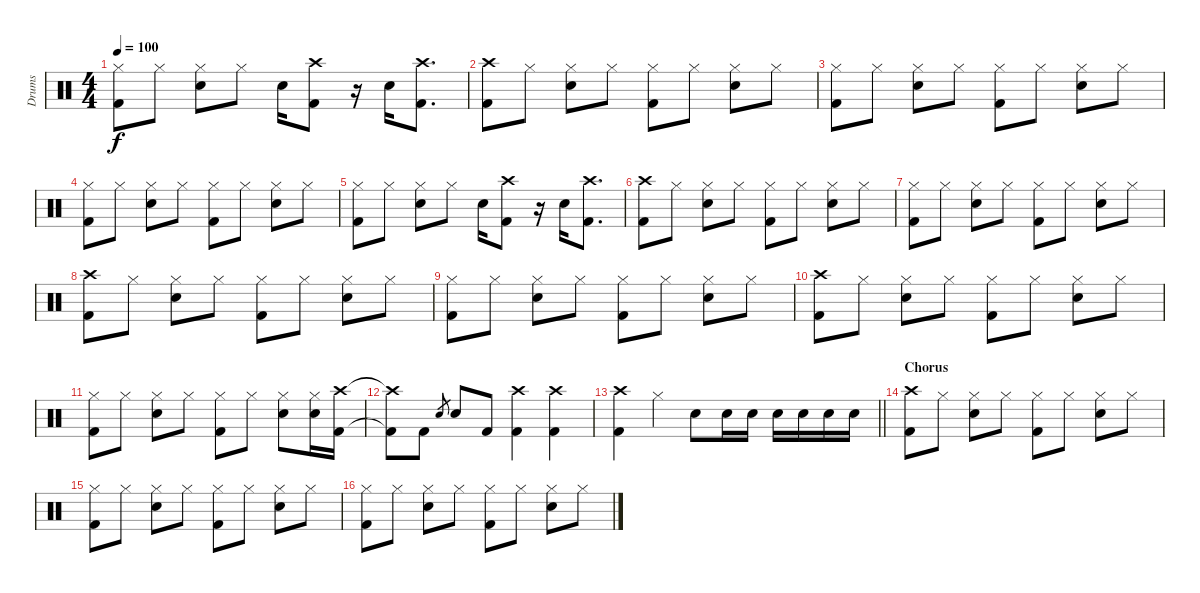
\track ("Drums" "Drums") {instrument percussion}
\staff {score}
\articulation defaults
\ts (4 4)
\tempo 100
\clef neutral
\ks c
("Hi-Hat (closed)" "Kick (hit) 2").8{dy f} "Hi-Hat (closed)".8 ("Hi-Hat (closed)" "Snare (hit) 2").8 "Hi-Hat (closed)".8 "Snare (hit) 2".16 ("Crash high (hit)" "Kick (hit) 2").8 r.16 "Snare (hit) 2".16 ("Crash high (hit)" "Kick (hit) 2").8{d} |
("Crash high (hit)" "Kick (hit) 2").8 "Hi-Hat (closed)".8 ("Hi-Hat (closed)" "Snare (hit) 2").8 "Hi-Hat (closed)".8 ("Hi-Hat (closed)" "Kick (hit) 2").8 "Hi-Hat (closed)".8 ("Hi-Hat (closed)" "Snare (hit) 2").8 "Hi-Hat (closed)".8 |
("Hi-Hat (closed)" "Kick (hit) 2").8 "Hi-Hat (closed)".8 ("Hi-Hat (closed)" "Snare (hit) 2").8 "Hi-Hat (closed)".8 ("Hi-Hat (closed)" "Kick (hit) 2").8 "Hi-Hat (closed)".8 ("Hi-Hat (closed)" "Snare (hit) 2").8 "Hi-Hat (closed)".8 |
("Hi-Hat (closed)" "Kick (hit) 2").8 "Hi-Hat (closed)".8 ("Hi-Hat (closed)" "Snare (hit) 2").8 "Hi-Hat (closed)".8 ("Hi-Hat (closed)" "Kick (hit) 2").8 "Hi-Hat (closed)".8 ("Hi-Hat (closed)" "Snare (hit) 2").8 "Hi-Hat (closed)".8 |
("Hi-Hat (closed)" "Kick (hit) 2").8 "Hi-Hat (closed)".8 ("Hi-Hat (closed)" "Snare (hit) 2").8 "Hi-Hat (closed)".8 "Snare (hit) 2".16 ("Crash high (hit)" "Kick (hit) 2").8 r.16 "Snare (hit) 2".16 ("Crash high (hit)" "Kick (hit) 2").8{d} |
("Crash high (hit)" "Kick (hit) 2").8 "Hi-Hat (closed)".8 ("Hi-Hat (closed)" "Snare (hit) 2").8 "Hi-Hat (closed)".8 ("Hi-Hat (closed)" "Kick (hit) 2").8 "Hi-Hat (closed)".8 ("Hi-Hat (closed)" "Snare (hit) 2").8 "Hi-Hat (closed)".8 |
("Hi-Hat (closed)" "Kick (hit) 2").8 "Hi-Hat (closed)".8 ("Hi-Hat (closed)" "Snare (hit) 2").8 "Hi-Hat (closed)".8 ("Hi-Hat (closed)" "Kick (hit) 2").8 "Hi-Hat (closed)".8 ("Hi-Hat (closed)" "Snare (hit) 2").8 "Hi-Hat (closed)".8 |
("Crash high (hit)" "Kick (hit) 2").8 "Hi-Hat (closed)".8 ("Hi-Hat (closed)" "Snare (hit) 2").8 "Hi-Hat (closed)".8 ("Hi-Hat (closed)" "Kick (hit) 2").8 "Hi-Hat (closed)".8 ("Hi-Hat (closed)" "Snare (hit) 2").8 "Hi-Hat (closed)".8 |
("Hi-Hat (closed)" "Kick (hit) 2").8 "Hi-Hat (closed)".8 ("Hi-Hat (closed)" "Snare (hit) 2").8 "Hi-Hat (closed)".8 ("Hi-Hat (closed)" "Kick (hit) 2").8 "Hi-Hat (closed)".8 ("Hi-Hat (closed)" "Snare (hit) 2").8 "Hi-Hat (closed)".8 |
("Crash high (hit)" "Kick (hit) 2").8 "Hi-Hat (closed)".8 ("Hi-Hat (closed)" "Snare (hit) 2").8 "Hi-Hat (closed)".8 ("Hi-Hat (closed)" "Kick (hit) 2").8 "Hi-Hat (closed)".8 ("Hi-Hat (closed)" "Snare (hit) 2").8 "Hi-Hat (closed)".8 |
("Hi-Hat (closed)" "Kick (hit) 2").8 "Hi-Hat (closed)".8 ("Hi-Hat (closed)" "Snare (hit) 2").8 "Hi-Hat (closed)".8 ("Hi-Hat (closed)" "Kick (hit) 2").8 "Hi-Hat (closed)".8 ("Hi-Hat (closed)" "Snare (hit) 2").8 ("Hi-Hat (closed)" "Snare (hit) 2").16 ("Kick (hit) 2" "Crash high (hit)").16 |
("Kick (hit) 2"{t} "Crash high (hit)"{t}).8 "Kick (hit) 2".8 "Snare (hit) 2".8{gr} "Snare (hit) 2".8 "Kick (hit) 2".8 ("Kick (hit) 2" "Crash high (hit)").4 ("Kick (hit) 2" "Crash high (hit)").4 |
\barLineRight lightlight
("Kick (hit) 2" "Crash high (hit)").4 "Hi-Hat (closed)".4 "Snare (hit) 2".8 "Snare (hit) 2".16 "Snare (hit) 2".16 "Snare (hit) 2".16 "Snare (hit) 2".16 "Snare (hit) 2".16 "Snare (hit) 2".16 |
\section ("" "Chorus")
("Crash high (hit)" "Kick (hit) 2").8 "Hi-Hat (closed)".8 ("Hi-Hat (closed)" "Snare (hit) 2").8 "Hi-Hat (closed)".8 ("Hi-Hat (closed)" "Kick (hit) 2").8 "Hi-Hat (closed)".8 ("Hi-Hat (closed)" "Snare (hit) 2").8 "Hi-Hat (closed)".8 |
("Hi-Hat (closed)" "Kick (hit) 2").8 "Hi-Hat (closed)".8 ("Hi-Hat (closed)" "Snare (hit) 2").8 "Hi-Hat (closed)".8 ("Hi-Hat (closed)" "Kick (hit) 2").8 "Hi-Hat (closed)".8 ("Hi-Hat (closed)" "Snare (hit) 2").8 "Hi-Hat (closed)".8 |
("Hi-Hat (closed)" "Kick (hit) 2").8 "Hi-Hat (closed)".8 ("Hi-Hat (closed)" "Snare (hit) 2").8 "Hi-Hat (closed)".8 ("Hi-Hat (closed)" "Kick (hit) 2").8 "Hi-Hat (closed)".8 ("Hi-Hat (closed)" "Snare (hit) 2").8 "Hi-Hat (closed)".8
